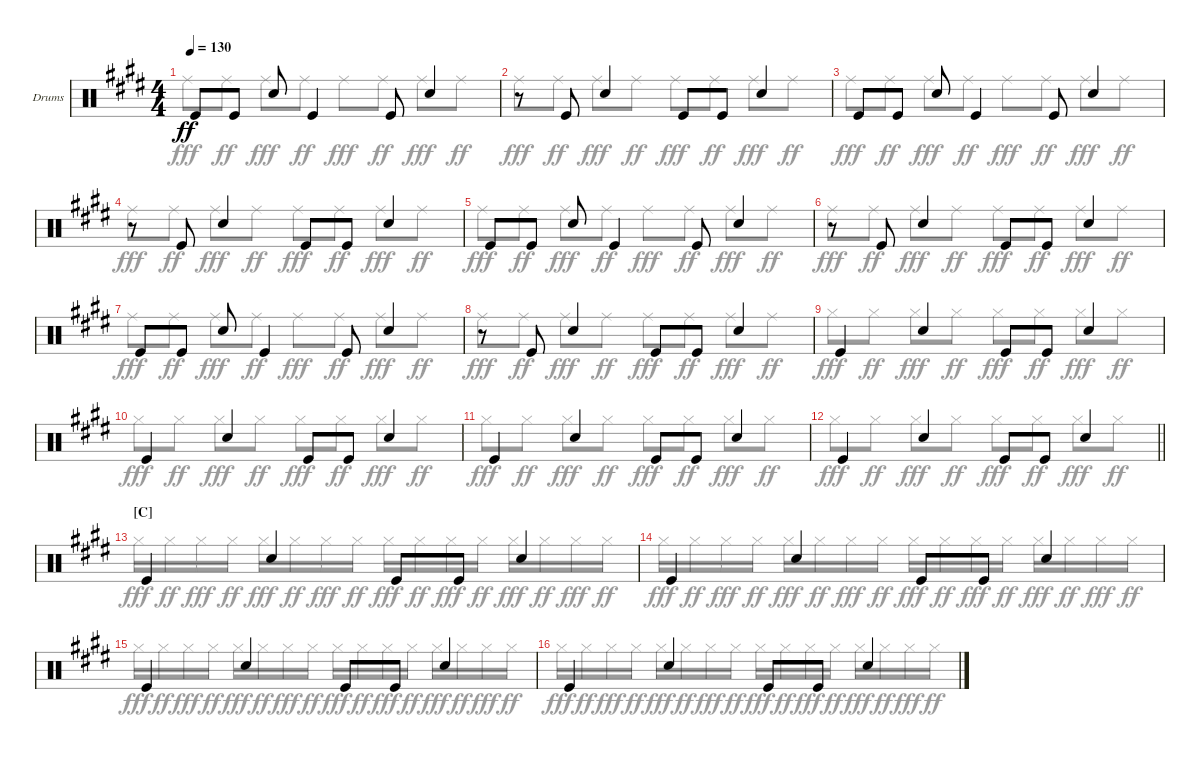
\bracketExtendMode groupsimilarinstruments
\firstSystemTrackNameOrientation horizontal
\otherSystemsTrackNameOrientation horizontal
\track ("Fabrizo Moretti" "Drums") {instrument percussion}
\staff {score}
\articulation defaults
\voice
\ts (4 4)
\tempo 130
\clef neutral
\ks e "Kick (hit)".8{dy ff} "Kick (hit)".8 "Snare (hit) 2".8 "Kick (hit)".4 "Kick (hit)".8 "Snare (hit) 2".4
|
r.8 "Kick (hit)".8 "Snare (hit) 2".4 "Kick (hit)".8 "Kick (hit)".8 "Snare (hit) 2".4 |
"Kick (hit)".8 "Kick (hit)".8 "Snare (hit) 2".8 "Kick (hit)".4 "Kick (hit)".8 "Snare (hit) 2".4 |
r.8 "Kick (hit)".8 "Snare (hit) 2".4 "Kick (hit)".8 "Kick (hit)".8 "Snare (hit) 2".4 |
"Kick (hit)".8 "Kick (hit)".8 "Snare (hit) 2".8 "Kick (hit)".4 "Kick (hit)".8 "Snare (hit) 2".4 |
r.8 "Kick (hit)".8 "Snare (hit) 2".4 "Kick (hit)".8 "Kick (hit)".8 "Snare (hit) 2".4 |
"Kick (hit)".8 "Kick (hit)".8 "Snare (hit) 2".8 "Kick (hit)".4 "Kick (hit)".8 "Snare (hit) 2".4 |
r.8 "Kick (hit)".8 "Snare (hit) 2".4 "Kick (hit)".8 "Kick (hit)".8 "Snare (hit) 2".4 |
"Kick (hit)".4 "Snare (hit) 2".4 "Kick (hit)".8 "Kick (hit)".8 "Snare (hit) 2".4 |
"Kick (hit)".4 "Snare (hit) 2".4 "Kick (hit)".8 "Kick (hit)".8 "Snare (hit) 2".4 |
"Kick (hit)".4 "Snare (hit) 2".4 "Kick (hit)".8 "Kick (hit)".8 "Snare (hit) 2".4 |
\barLineRight lightlight "Kick (hit)".4 "Snare (hit) 2".4 "Kick (hit)".8 "Kick (hit)".8 "Snare (hit) 2".4
|
\section ("C" "")
"Kick (hit)".4 "Snare (hit) 2".4 "Kick (hit)".8 "Kick (hit)".8 "Snare (hit) 2".4 |
"Kick (hit)".4 "Snare (hit) 2".4 "Kick (hit)".8 "Kick (hit)".8 "Snare (hit) 2".4 |
"Kick (hit)".4 "Snare (hit) 2".4 "Kick (hit)".8 "Kick (hit)".8 "Snare (hit) 2".4 |
"Kick (hit)".4 "Snare (hit) 2".4 "Kick (hit)".8 "Kick (hit)".8 "Snare (hit) 2".4
\voice
\clef neutral
\ottava regular
\simile none
\ks e "Ride (middle)".8{dy fff} "Ride (middle)".8{dy ff} "Ride (middle)".8{dy fff} "Ride (middle)".8{dy ff} "Ride (middle)".8{dy fff} "Ride (middle)".8{dy ff} "Ride (middle)".8{dy fff} "Ride (middle)".8{dy ff}
|
"Ride (middle)".8{dy fff} "Ride (middle)".8{dy ff} "Ride (middle)".8{dy fff} "Ride (middle)".8{dy ff} "Ride (middle)".8{dy fff} "Ride (middle)".8{dy ff} "Ride (middle)".8{dy fff} "Ride (middle)".8{dy ff} |
"Ride (middle)".8{dy fff} "Ride (middle)".8{dy ff} "Ride (middle)".8{dy fff} "Ride (middle)".8{dy ff} "Ride (middle)".8{dy fff} "Ride (middle)".8{dy ff} "Ride (middle)".8{dy fff} "Ride (middle)".8{dy ff} |
"Ride (middle)".8{dy fff} "Ride (middle)".8{dy ff} "Ride (middle)".8{dy fff} "Ride (middle)".8{dy ff} "Ride (middle)".8{dy fff} "Ride (middle)".8{dy ff} "Ride (middle)".8{dy fff} "Ride (middle)".8{dy ff} |
"Ride (middle)".8{dy fff} "Ride (middle)".8{dy ff} "Ride (middle)".8{dy fff} "Ride (middle)".8{dy ff} "Ride (middle)".8{dy fff} "Ride (middle)".8{dy ff} "Ride (middle)".8{dy fff} "Ride (middle)".8{dy ff} |
"Ride (middle)".8{dy fff} "Ride (middle)".8{dy ff} "Ride (middle)".8{dy fff} "Ride (middle)".8{dy ff} "Ride (middle)".8{dy fff} "Ride (middle)".8{dy ff} "Ride (middle)".8{dy fff} "Ride (middle)".8{dy ff} |
"Ride (middle)".8{dy fff} "Ride (middle)".8{dy ff} "Ride (middle)".8{dy fff} "Ride (middle)".8{dy ff} "Ride (middle)".8{dy fff} "Ride (middle)".8{dy ff} "Ride (middle)".8{dy fff} "Ride (middle)".8{dy ff} |
"Ride (middle)".8{dy fff} "Ride (middle)".8{dy ff} "Ride (middle)".8{dy fff} "Ride (middle)".8{dy ff} "Ride (middle)".8{dy fff} "Ride (middle)".8{dy ff} "Ride (middle)".8{dy fff} "Ride (middle)".8{dy ff} |
"Hi-Hat (closed)".8{dy fff} "Hi-Hat (closed)".8{dy ff} "Hi-Hat (closed)".8{dy fff} "Hi-Hat (closed)".8{dy ff} "Hi-Hat (closed)".8{dy fff} "Hi-Hat (closed)".8{dy ff} "Hi-Hat (closed)".8{dy fff} "Hi-Hat (closed)".8{dy ff} |
"Hi-Hat (closed)".8{dy fff} "Hi-Hat (closed)".8{dy ff} "Hi-Hat (closed)".8{dy fff} "Hi-Hat (closed)".8{dy ff} "Hi-Hat (closed)".8{dy fff} "Hi-Hat (closed)".8{dy ff} "Hi-Hat (closed)".8{dy fff} "Hi-Hat (closed)".8{dy ff} |
"Hi-Hat (closed)".8{dy fff} "Hi-Hat (closed)".8{dy ff} "Hi-Hat (closed)".8{dy fff} "Hi-Hat (closed)".8{dy ff} "Hi-Hat (closed)".8{dy fff} "Hi-Hat (closed)".8{dy ff} "Hi-Hat (closed)".8{dy fff} "Hi-Hat (closed)".8{dy ff} |
\barLineRight lightlight "Hi-Hat (closed)".8{dy fff} "Hi-Hat (closed)".8{dy ff} "Hi-Hat (closed)".8{dy fff} "Hi-Hat (closed)".8{dy ff} "Hi-Hat (closed)".8{dy fff} "Hi-Hat (closed)".8{dy ff} "Hi-Hat (closed)".8{dy fff} "Hi-Hat (closed)".8{dy ff}
|
"Hi-Hat (closed)".16{dy fff} "Hi-Hat (closed)".16{dy ff} "Hi-Hat (closed)".16{dy fff} "Hi-Hat (closed)".16{dy ff} "Hi-Hat (closed)".16{dy fff} "Hi-Hat (closed)".16{dy ff} "Hi-Hat (closed)".16{dy fff} "Hi-Hat (closed)".16{dy ff} "Hi-Hat (closed)".16{dy fff} "Hi-Hat (closed)".16{dy ff} "Hi-Hat (closed)".16{dy fff} "Hi-Hat (closed)".16{dy ff} "Hi-Hat (closed)".16{dy fff} "Hi-Hat (closed)".16{dy ff} "Hi-Hat (closed)".16{dy fff} "Hi-Hat (closed)".16{dy ff} |
"Hi-Hat (closed)".16{dy fff} "Hi-Hat (closed)".16{dy ff} "Hi-Hat (closed)".16{dy fff} "Hi-Hat (closed)".16{dy ff} "Hi-Hat (closed)".16{dy fff} "Hi-Hat (closed)".16{dy ff} "Hi-Hat (closed)".16{dy fff} "Hi-Hat (closed)".16{dy ff} "Hi-Hat (closed)".16{dy fff} "Hi-Hat (closed)".16{dy ff} "Hi-Hat (closed)".16{dy fff} "Hi-Hat (closed)".16{dy ff} "Hi-Hat (closed)".16{dy fff} "Hi-Hat (closed)".16{dy ff} "Hi-Hat (closed)".16{dy fff} "Hi-Hat (closed)".16{dy ff} |
"Hi-Hat (closed)".16{dy fff} "Hi-Hat (closed)".16{dy ff} "Hi-Hat (closed)".16{dy fff} "Hi-Hat (closed)".16{dy ff} "Hi-Hat (closed)".16{dy fff} "Hi-Hat (closed)".16{dy ff} "Hi-Hat (closed)".16{dy fff} "Hi-Hat (closed)".16{dy ff} "Hi-Hat (closed)".16{dy fff} "Hi-Hat (closed)".16{dy ff} "Hi-Hat (closed)".16{dy fff} "Hi-Hat (closed)".16{dy ff} "Hi-Hat (closed)".16{dy fff} "Hi-Hat (closed)".16{dy ff} "Hi-Hat (closed)".16{dy fff} "Hi-Hat (closed)".16{dy ff} |
"Hi-Hat (closed)".16{dy fff} "Hi-Hat (closed)".16{dy ff} "Hi-Hat (closed)".16{dy fff} "Hi-Hat (closed)".16{dy ff} "Hi-Hat (closed)".16{dy fff} "Hi-Hat (closed)".16{dy ff} "Hi-Hat (closed)".16{dy fff} "Hi-Hat (closed)".16{dy ff} "Hi-Hat (closed)".16{dy fff} "Hi-Hat (closed)".16{dy ff} "Hi-Hat (closed)".16{dy fff} "Hi-Hat (closed)".16{dy ff} "Hi-Hat (closed)".16{dy fff} "Hi-Hat (closed)".16{dy ff} "Hi-Hat (closed)".16{dy fff} "Hi-Hat (closed)".16{dy ff}
